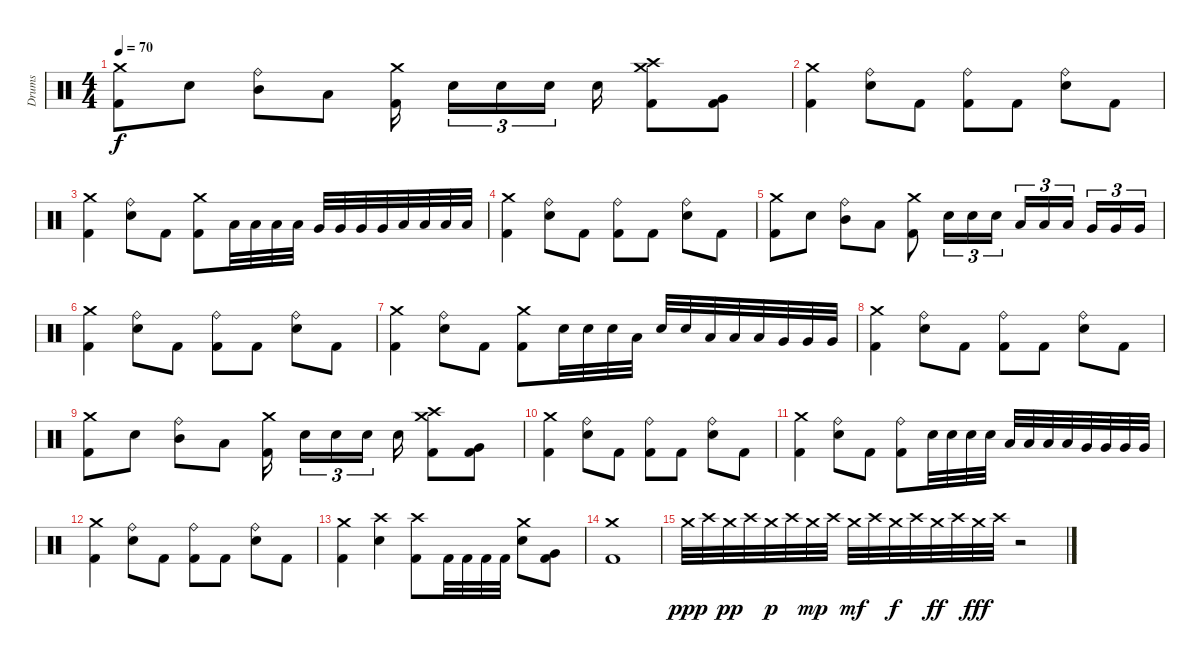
\track ("Drums" "Drums") {instrument percussion}
\staff {score}
\articulation defaults
\ts (4 4)
\tempo 70
\clef neutral
\ks c
("Crash medium (hit)" "Kick (hit) 2").8{dy f} "Snare (hit) 2".8 ("Ride (bell)" "Mid Tom (hit)").8 "Low Tom (hit)".8 ("Crash medium (hit)" "Kick (hit) 2").16 "Snare (hit) 2".16{tu (3 2)} "Snare (hit) 2".16{tu (3 2)} "Snare (hit) 2".16{tu (3 2)} "Snare (hit) 2".16 ("Crash high (hit)" "Crash medium (hit)" "Kick (hit) 2").8 ("Very Low Tom (hit)" "Kick (hit) 2").8 |
("Crash medium (hit)" "Kick (hit) 2").4 ("Ride (bell)" "Snare (hit) 2").8 "Kick (hit) 2".8 ("Ride (bell)" "Kick (hit) 2").8 "Kick (hit) 2".8 ("Ride (bell)" "Snare (hit) 2").8 "Kick (hit) 2".8 |
("Crash medium (hit)" "Kick (hit) 2").4 ("Ride (bell)" "Snare (hit) 2").8 "Kick (hit) 2".8 ("Crash medium (hit)" "Kick (hit) 2").8 "Low Tom (hit)".32 "Low Tom (hit)".32 "Low Tom (hit)".32 "Low Tom (hit)".32 "Very Low Tom (hit)".32 "Very Low Tom (hit)".32 "Very Low Tom (hit)".32 "Very Low Tom (hit)".32 "Low Floor Tom (hit)".32 "Low Floor Tom (hit)".32 "Low Floor Tom (hit)".32 "Low Floor Tom (hit)".32 |
("Crash medium (hit)" "Kick (hit) 2").4 ("Ride (bell)" "Snare (hit) 2").8 "Kick (hit) 2".8 ("Ride (bell)" "Kick (hit) 2").8 "Kick (hit) 2".8 ("Ride (bell)" "Snare (hit) 2").8 "Kick (hit) 2".8 |
("Crash medium (hit)" "Kick (hit) 2").8 "Snare (hit) 2".8 ("Ride (bell)" "Mid Tom (hit)").8 "Low Tom (hit)".8 ("Crash medium (hit)" "Kick (hit) 2").8 "Snare (hit) 2".16{tu (3 2)} "Snare (hit) 2".16{tu (3 2)} "Snare (hit) 2".16{tu (3 2)} "Low Tom (hit)".16{tu (3 2)} "Low Tom (hit)".16{tu (3 2)} "Low Tom (hit)".16{tu (3 2)} "Very Low Tom (hit)".16{tu (3 2)} "Very Low Tom (hit)".16{tu (3 2)} "Very Low Tom (hit)".16{tu (3 2)} |
("Crash medium (hit)" "Kick (hit) 2").4 ("Ride (bell)" "Snare (hit) 2").8 "Kick (hit) 2".8 ("Ride (bell)" "Kick (hit) 2").8 "Kick (hit) 2".8 ("Ride (bell)" "Snare (hit) 2").8 "Kick (hit) 2".8 |
("Crash medium (hit)" "Kick (hit) 2").4 ("Ride (bell)" "Snare (hit) 2").8 "Kick (hit) 2".8 ("Crash medium (hit)" "Kick (hit) 2").8 "Snare (hit) 2".32 "Snare (hit) 2".32 "Snare (hit) 2".32 "Low Tom (hit)".32 "Snare (hit) 2".32 "Snare (hit) 2".32 "Low Tom (hit)".32 "Low Tom (hit)".32 "Low Tom (hit)".32 "Very Low Tom (hit)".32 "Very Low Tom (hit)".32 "Very Low Tom (hit)".32 |
("Crash medium (hit)" "Kick (hit) 2").4 ("Ride (bell)" "Snare (hit) 2").8 "Kick (hit) 2".8 ("Ride (bell)" "Kick (hit) 2").8 "Kick (hit) 2".8 ("Ride (bell)" "Snare (hit) 2").8 "Kick (hit) 2".8 |
("Crash medium (hit)" "Kick (hit) 2").8 "Snare (hit) 2".8 ("Ride (bell)" "Mid Tom (hit)").8 "Low Tom (hit)".8 ("Crash medium (hit)" "Kick (hit) 2").16 "Snare (hit) 2".16{tu (3 2)} "Snare (hit) 2".16{tu (3 2)} "Snare (hit) 2".16{tu (3 2)} "Snare (hit) 2".16 ("Crash high (hit)" "Crash medium (hit)" "Kick (hit) 2").8 ("Very Low Tom (hit)" "Kick (hit) 2").8 |
("Crash medium (hit)" "Kick (hit) 2").4 ("Ride (bell)" "Snare (hit) 2").8 "Kick (hit) 2".8 ("Ride (bell)" "Kick (hit) 2").8 "Kick (hit) 2".8 ("Ride (bell)" "Snare (hit) 2").8 "Kick (hit) 2".8 |
("Crash medium (hit)" "Kick (hit) 2").4 ("Ride (bell)" "Snare (hit) 2").8 "Kick (hit) 2".8 ("Ride (bell)" "Kick (hit) 2").8 "Snare (hit) 2".32 "Snare (hit) 2".32 "Snare (hit) 2".32 "Snare (hit) 2".32 "Low Tom (hit)".32 "Low Tom (hit)".32 "Low Tom (hit)".32 "Low Tom (hit)".32 "Very Low Tom (hit)".32 "Very Low Tom (hit)".32 "Very Low Tom (hit)".32 "Very Low Tom (hit)".32 |
("Crash medium (hit)" "Kick (hit) 2").4 ("Ride (bell)" "Snare (hit) 2").8 "Kick (hit) 2".8 ("Ride (bell)" "Kick (hit) 2").8 "Kick (hit) 2".8 ("Ride (bell)" "Snare (hit) 2").8 "Kick (hit) 2".8 |
("Crash medium (hit)" "Kick (hit) 2").4 ("Crash high (hit)" "Snare (hit) 2").4 ("Crash high (hit)" "Kick (hit) 2").8 "Kick (hit) 2".32 "Kick (hit) 2".32 "Kick (hit) 2".32 "Kick (hit) 2".32 ("Crash medium (hit)" "Snare (hit) 2").8 ("Very Low Tom (hit)" "Kick (hit) 2").8 |
("Crash medium (hit)" "Kick (hit) 2").1 |
"Crash medium (hit)".32{dy ppp} "Crash high (hit)".32 "Crash medium (hit)".32{dy pp} "Crash high (hit)".32 "Crash medium (hit)".32{dy p} "Crash high (hit)".32 "Crash medium (hit)".32{dy mp} "Crash high (hit)".32 "Crash medium (hit)".32{dy mf} "Crash high (hit)".32 "Crash medium (hit)".32{dy f} "Crash high (hit)".32 "Crash medium (hit)".32{dy ff} "Crash high (hit)".32 "Crash medium (hit)".32{dy fff} "Crash high (hit)".32 r.2
